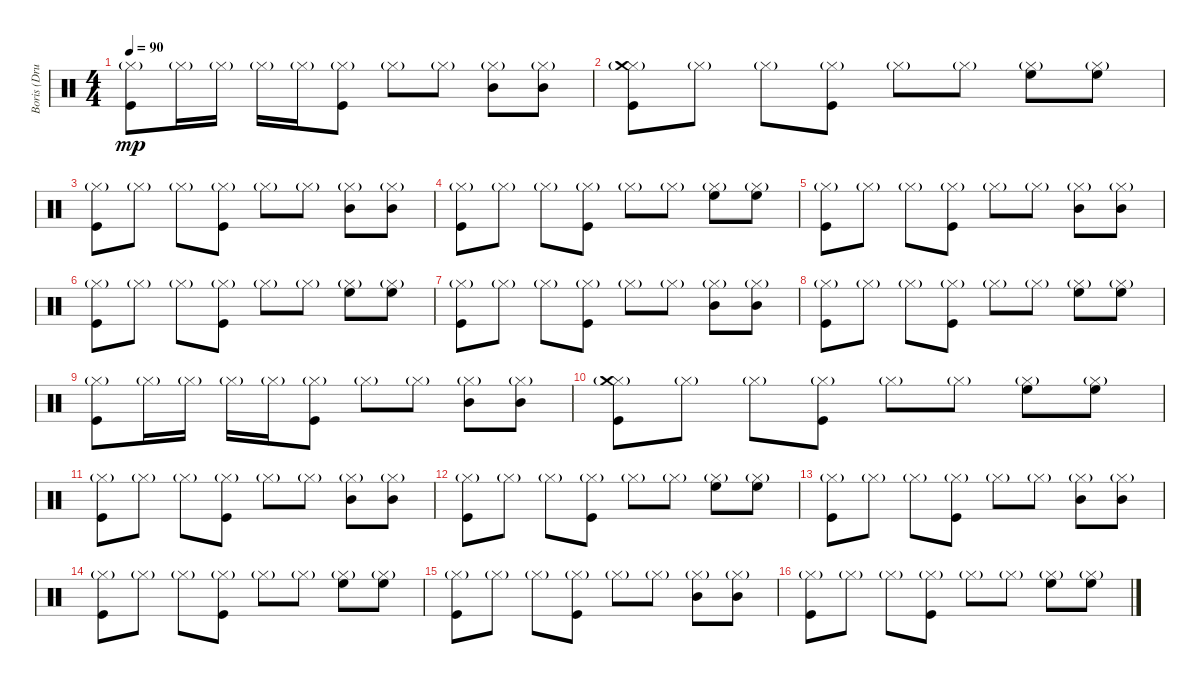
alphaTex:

\track ("Boris (Drums)" "Boris (Dru") {instrument percussion}
\staff {score}
\articulation defaults
\ts (4 4)
\tempo 90
\clef neutral
\ks c
("Kick (hit)" "Hi-Hat (closed)"{g}).8{dy mp} "Hi-Hat (closed)"{g}.16 "Hi-Hat (closed)"{g}.16 "Hi-Hat (closed)"{g}.16 "Hi-Hat (closed)"{g}.16 ("Kick (hit)" "Hi-Hat (closed)"{g}).8 "Hi-Hat (closed)"{g}.8 "Hi-Hat (closed)"{g}.8 ("Mid Tom (hit)" "Hi-Hat (closed)"{g}).8 ("Mid Tom (hit)" "Hi-Hat (closed)"{g}).8 |
("Kick (hit)" "Hi-Hat (closed)"{g} "Crash medium (hit)").8 "Hi-Hat (closed)"{g}.8 "Hi-Hat (closed)"{g}.8 ("Kick (hit)" "Hi-Hat (closed)"{g}).8 "Hi-Hat (closed)"{g}.8 "Hi-Hat (closed)"{g}.8 ("High Floor Tom (hit)" "Hi-Hat (closed)"{g}).8 ("High Floor Tom (hit)" "Hi-Hat (closed)"{g}).8 |
("Kick (hit)" "Hi-Hat (closed)"{g}).8 "Hi-Hat (closed)"{g}.8 "Hi-Hat (closed)"{g}.8 ("Kick (hit)" "Hi-Hat (closed)"{g}).8 "Hi-Hat (closed)"{g}.8 "Hi-Hat (closed)"{g}.8 ("Mid Tom (hit)" "Hi-Hat (closed)"{g}).8 ("Mid Tom (hit)" "Hi-Hat (closed)"{g}).8 |
("Kick (hit)" "Hi-Hat (closed)"{g}).8 "Hi-Hat (closed)"{g}.8 "Hi-Hat (closed)"{g}.8 ("Kick (hit)" "Hi-Hat (closed)"{g}).8 "Hi-Hat (closed)"{g}.8 "Hi-Hat (closed)"{g}.8 ("High Floor Tom (hit)" "Hi-Hat (closed)"{g}).8 ("High Floor Tom (hit)" "Hi-Hat (closed)"{g}).8 |
("Kick (hit)" "Hi-Hat (closed)"{g}).8 "Hi-Hat (closed)"{g}.8 "Hi-Hat (closed)"{g}.8 ("Kick (hit)" "Hi-Hat (closed)"{g}).8 "Hi-Hat (closed)"{g}.8 "Hi-Hat (closed)"{g}.8 ("Mid Tom (hit)" "Hi-Hat (closed)"{g}).8 ("Mid Tom (hit)" "Hi-Hat (closed)"{g}).8 |
("Kick (hit)" "Hi-Hat (closed)"{g}).8 "Hi-Hat (closed)"{g}.8 "Hi-Hat (closed)"{g}.8 ("Kick (hit)" "Hi-Hat (closed)"{g}).8 "Hi-Hat (closed)"{g}.8 "Hi-Hat (closed)"{g}.8 ("High Floor Tom (hit)" "Hi-Hat (closed)"{g}).8 ("High Floor Tom (hit)" "Hi-Hat (closed)"{g}).8 |
("Kick (hit)" "Hi-Hat (closed)"{g}).8 "Hi-Hat (closed)"{g}.8 "Hi-Hat (closed)"{g}.8 ("Kick (hit)" "Hi-Hat (closed)"{g}).8 "Hi-Hat (closed)"{g}.8 "Hi-Hat (closed)"{g}.8 ("Mid Tom (hit)" "Hi-Hat (closed)"{g}).8 ("Mid Tom (hit)" "Hi-Hat (closed)"{g}).8 |
("Kick (hit)" "Hi-Hat (closed)"{g}).8 "Hi-Hat (closed)"{g}.8 "Hi-Hat (closed)"{g}.8 ("Kick (hit)" "Hi-Hat (closed)"{g}).8 "Hi-Hat (closed)"{g}.8 "Hi-Hat (closed)"{g}.8 ("High Floor Tom (hit)" "Hi-Hat (closed)"{g}).8 ("High Floor Tom (hit)" "Hi-Hat (closed)"{g}).8 |
("Kick (hit)" "Hi-Hat (closed)"{g}).8 "Hi-Hat (closed)"{g}.16 "Hi-Hat (closed)"{g}.16 "Hi-Hat (closed)"{g}.16 "Hi-Hat (closed)"{g}.16 ("Kick (hit)" "Hi-Hat (closed)"{g}).8 "Hi-Hat (closed)"{g}.8 "Hi-Hat (closed)"{g}.8 ("Mid Tom (hit)" "Hi-Hat (closed)"{g}).8 ("Mid Tom (hit)" "Hi-Hat (closed)"{g}).8 |
("Kick (hit)" "Hi-Hat (closed)"{g} "Crash medium (hit)").8 "Hi-Hat (closed)"{g}.8 "Hi-Hat (closed)"{g}.8 ("Kick (hit)" "Hi-Hat (closed)"{g}).8 "Hi-Hat (closed)"{g}.8 "Hi-Hat (closed)"{g}.8 ("High Floor Tom (hit)" "Hi-Hat (closed)"{g}).8 ("High Floor Tom (hit)" "Hi-Hat (closed)"{g}).8 |
("Kick (hit)" "Hi-Hat (closed)"{g}).8 "Hi-Hat (closed)"{g}.8 "Hi-Hat (closed)"{g}.8 ("Kick (hit)" "Hi-Hat (closed)"{g}).8 "Hi-Hat (closed)"{g}.8 "Hi-Hat (closed)"{g}.8 ("Mid Tom (hit)" "Hi-Hat (closed)"{g}).8 ("Mid Tom (hit)" "Hi-Hat (closed)"{g}).8 |
("Kick (hit)" "Hi-Hat (closed)"{g}).8 "Hi-Hat (closed)"{g}.8 "Hi-Hat (closed)"{g}.8 ("Kick (hit)" "Hi-Hat (closed)"{g}).8 "Hi-Hat (closed)"{g}.8 "Hi-Hat (closed)"{g}.8 ("High Floor Tom (hit)" "Hi-Hat (closed)"{g}).8 ("High Floor Tom (hit)" "Hi-Hat (closed)"{g}).8 |
("Kick (hit)" "Hi-Hat (closed)"{g}).8 "Hi-Hat (closed)"{g}.8 "Hi-Hat (closed)"{g}.8 ("Kick (hit)" "Hi-Hat (closed)"{g}).8 "Hi-Hat (closed)"{g}.8 "Hi-Hat (closed)"{g}.8 ("Mid Tom (hit)" "Hi-Hat (closed)"{g}).8 ("Mid Tom (hit)" "Hi-Hat (closed)"{g}).8 |
("Kick (hit)" "Hi-Hat (closed)"{g}).8 "Hi-Hat (closed)"{g}.8 "Hi-Hat (closed)"{g}.8 ("Kick (hit)" "Hi-Hat (closed)"{g}).8 "Hi-Hat (closed)"{g}.8 "Hi-Hat (closed)"{g}.8 ("High Floor Tom (hit)" "Hi-Hat (closed)"{g}).8 ("High Floor Tom (hit)" "Hi-Hat (closed)"{g}).8 |
("Kick (hit)" "Hi-Hat (closed)"{g}).8 "Hi-Hat (closed)"{g}.8 "Hi-Hat (closed)"{g}.8 ("Kick (hit)" "Hi-Hat (closed)"{g}).8 "Hi-Hat (closed)"{g}.8 "Hi-Hat (closed)"{g}.8 ("Mid Tom (hit)" "Hi-Hat (closed)"{g}).8 ("Mid Tom (hit)" "Hi-Hat (closed)"{g}).8 |
("Kick (hit)" "Hi-Hat (closed)"{g}).8 "Hi-Hat (closed)"{g}.8 "Hi-Hat (closed)"{g}.8 ("Kick (hit)" "Hi-Hat (closed)"{g}).8 "Hi-Hat (closed)"{g}.8 "Hi-Hat (closed)"{g}.8 ("High Floor Tom (hit)" "Hi-Hat (closed)"{g}).8 ("High Floor Tom (hit)" "Hi-Hat (closed)"{g}).8
